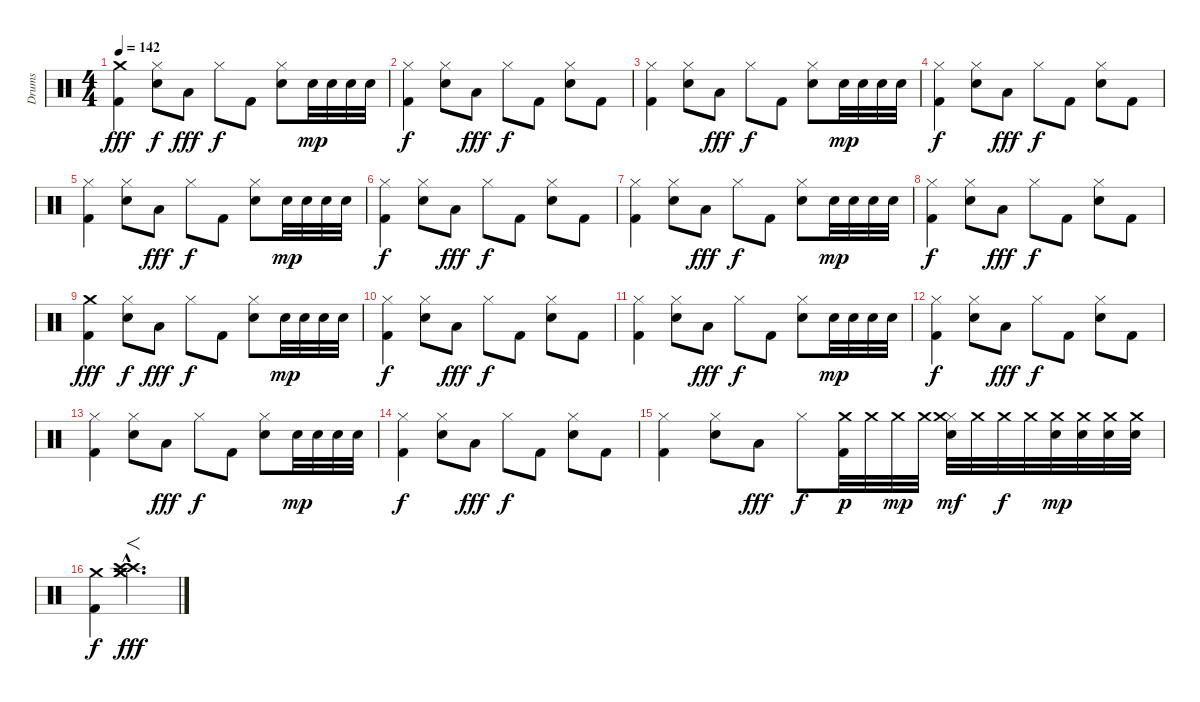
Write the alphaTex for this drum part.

\track ("Drums" "Drums") {instrument percussion}
\staff {score}
\articulation defaults
\ts (4 4)
\tempo 142
\clef neutral
\ks c
("Crash medium (hit)" "Kick (hit) 2").4{dy fff volume 11} ("Hi-Hat (closed)" "Snare (hit) 2").8{dy f} "Low Tom (hit)".8{dy fff} "Hi-Hat (closed)".8{dy f} "Kick (hit) 2".8 ("Hi-Hat (closed)" "Snare (hit) 2").8 "Snare (hit) 2".32{dy mp} "Snare (hit) 2".32 "Snare (hit) 2".32 "Snare (hit) 2".32 |
("Hi-Hat (closed)" "Kick (hit) 2").4{dy f volume 11} ("Hi-Hat (closed)" "Snare (hit) 2").8 "Low Tom (hit)".8{dy fff} "Hi-Hat (closed)".8{dy f} "Kick (hit) 2".8 ("Hi-Hat (closed)" "Snare (hit) 2").8 "Kick (hit) 2".8 |
("Hi-Hat (closed)" "Kick (hit) 2").4{volume 11} ("Hi-Hat (closed)" "Snare (hit) 2").8 "Low Tom (hit)".8{dy fff} "Hi-Hat (closed)".8{dy f} "Kick (hit) 2".8 ("Hi-Hat (closed)" "Snare (hit) 2").8 "Snare (hit) 2".32{dy mp} "Snare (hit) 2".32 "Snare (hit) 2".32 "Snare (hit) 2".32 |
("Hi-Hat (closed)" "Kick (hit) 2").4{dy f volume 11} ("Hi-Hat (closed)" "Snare (hit) 2").8 "Low Tom (hit)".8{dy fff} "Hi-Hat (closed)".8{dy f} "Kick (hit) 2".8 ("Hi-Hat (closed)" "Snare (hit) 2").8 "Kick (hit) 2".8 |
("Hi-Hat (closed)" "Kick (hit) 2").4{volume 11} ("Hi-Hat (closed)" "Snare (hit) 2").8 "Low Tom (hit)".8{dy fff} "Hi-Hat (closed)".8{dy f} "Kick (hit) 2".8 ("Hi-Hat (closed)" "Snare (hit) 2").8 "Snare (hit) 2".32{dy mp} "Snare (hit) 2".32 "Snare (hit) 2".32 "Snare (hit) 2".32 |
("Hi-Hat (closed)" "Kick (hit) 2").4{dy f volume 11} ("Hi-Hat (closed)" "Snare (hit) 2").8 "Low Tom (hit)".8{dy fff} "Hi-Hat (closed)".8{dy f} "Kick (hit) 2".8 ("Hi-Hat (closed)" "Snare (hit) 2").8 "Kick (hit) 2".8 |
("Hi-Hat (closed)" "Kick (hit) 2").4{volume 11} ("Hi-Hat (closed)" "Snare (hit) 2").8 "Low Tom (hit)".8{dy fff} "Hi-Hat (closed)".8{dy f} "Kick (hit) 2".8 ("Hi-Hat (closed)" "Snare (hit) 2").8 "Snare (hit) 2".32{dy mp} "Snare (hit) 2".32 "Snare (hit) 2".32 "Snare (hit) 2".32 |
("Hi-Hat (closed)" "Kick (hit) 2").4{dy f volume 11} ("Hi-Hat (closed)" "Snare (hit) 2").8 "Low Tom (hit)".8{dy fff} "Hi-Hat (closed)".8{dy f} "Kick (hit) 2".8 ("Hi-Hat (closed)" "Snare (hit) 2").8 "Kick (hit) 2".8 |
("Crash medium (hit)" "Kick (hit) 2").4{dy fff volume 11} ("Hi-Hat (closed)" "Snare (hit) 2").8{dy f} "Low Tom (hit)".8{dy fff} "Hi-Hat (closed)".8{dy f} "Kick (hit) 2".8 ("Hi-Hat (closed)" "Snare (hit) 2").8 "Snare (hit) 2".32{dy mp} "Snare (hit) 2".32 "Snare (hit) 2".32 "Snare (hit) 2".32 |
("Hi-Hat (closed)" "Kick (hit) 2").4{dy f volume 11} ("Hi-Hat (closed)" "Snare (hit) 2").8 "Low Tom (hit)".8{dy fff} "Hi-Hat (closed)".8{dy f} "Kick (hit) 2".8 ("Hi-Hat (closed)" "Snare (hit) 2").8 "Kick (hit) 2".8 |
("Hi-Hat (closed)" "Kick (hit) 2").4{volume 11} ("Hi-Hat (closed)" "Snare (hit) 2").8 "Low Tom (hit)".8{dy fff} "Hi-Hat (closed)".8{dy f} "Kick (hit) 2".8 ("Hi-Hat (closed)" "Snare (hit) 2").8 "Snare (hit) 2".32{dy mp} "Snare (hit) 2".32 "Snare (hit) 2".32 "Snare (hit) 2".32 |
("Hi-Hat (closed)" "Kick (hit) 2").4{dy f volume 11} ("Hi-Hat (closed)" "Snare (hit) 2").8 "Low Tom (hit)".8{dy fff} "Hi-Hat (closed)".8{dy f} "Kick (hit) 2".8 ("Hi-Hat (closed)" "Snare (hit) 2").8 "Kick (hit) 2".8 |
("Hi-Hat (closed)" "Kick (hit) 2").4{volume 11} ("Hi-Hat (closed)" "Snare (hit) 2").8 "Low Tom (hit)".8{dy fff} "Hi-Hat (closed)".8{dy f} "Kick (hit) 2".8 ("Hi-Hat (closed)" "Snare (hit) 2").8 "Snare (hit) 2".32{dy mp} "Snare (hit) 2".32 "Snare (hit) 2".32 "Snare (hit) 2".32 |
("Hi-Hat (closed)" "Kick (hit) 2").4{dy f volume 11} ("Hi-Hat (closed)" "Snare (hit) 2").8 "Low Tom (hit)".8{dy fff} "Hi-Hat (closed)".8{dy f} "Kick (hit) 2".8 ("Hi-Hat (closed)" "Snare (hit) 2").8 "Kick (hit) 2".8 |
("Hi-Hat (closed)" "Kick (hit) 2").4{volume 11} ("Hi-Hat (closed)" "Snare (hit) 2").8 "Low Tom (hit)".8{dy fff} "Hi-Hat (closed)".8{dy f} ("Crash medium (hit)" "Kick (hit) 2").32{dy p} "Crash medium (hit)".32 "Crash medium (hit)".32{dy mp} "Crash medium (hit)".32 ("Hi-Hat (closed)" "Crash medium (hit)" "Snare (hit) 2").32{dy mf} "Crash medium (hit)".32 "Crash medium (hit)".32{dy f} "Crash medium (hit)".32 ("Crash medium (hit)" "Snare (hit) 2").32{dy mp} ("Crash medium (hit)" "Snare (hit) 2").32 ("Crash medium (hit)" "Snare (hit) 2").32 ("Crash medium (hit)" "Snare (hit) 2").32 |
("Crash medium (hit)" "Kick (hit) 2").4{dy f} ("Crash high (hit)"{hac} "Crash high (hit)"{hac} "Crash medium (hit)"{hac} "Crash medium (hit)"{hac}).2{f d dy fff}
